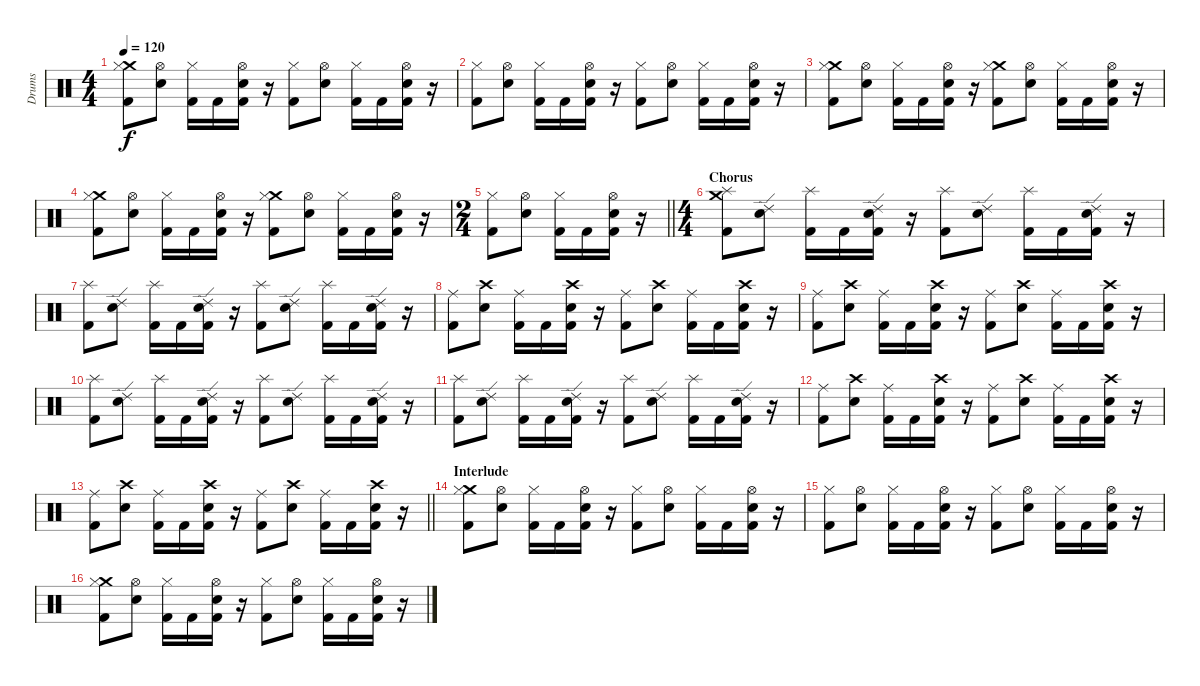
\track ("Drums" "Drums") {instrument percussion}
\staff {score}
\articulation defaults
\ts (4 4)
\tempo 120
\clef neutral
\ks c
("Kick (hit) 2" "Crash medium (hit)" "Hi-Hat (closed)").8{dy f} ("Snare (hit) 2" "Hi-Hat (open)").8 ("Kick (hit) 2" "Hi-Hat (closed)").16 "Kick (hit) 2".16 ("Kick (hit) 2" "Snare (hit) 2" "Hi-Hat (open)").16 r.16 ("Kick (hit) 2" "Hi-Hat (closed)").8 ("Snare (hit) 2" "Hi-Hat (open)").8 ("Kick (hit) 2" "Hi-Hat (closed)").16 "Kick (hit) 2".16 ("Kick (hit) 2" "Snare (hit) 2" "Hi-Hat (open)").16 r.16 |
("Kick (hit) 2" "Hi-Hat (closed)").8 ("Snare (hit) 2" "Hi-Hat (open)").8 ("Kick (hit) 2" "Hi-Hat (closed)").16 "Kick (hit) 2".16 ("Kick (hit) 2" "Snare (hit) 2" "Hi-Hat (open)").16 r.16 ("Kick (hit) 2" "Hi-Hat (closed)").8 ("Snare (hit) 2" "Hi-Hat (open)").8 ("Kick (hit) 2" "Hi-Hat (closed)").16 "Kick (hit) 2".16 ("Kick (hit) 2" "Snare (hit) 2" "Hi-Hat (open)").16 r.16 |
("Kick (hit) 2" "Crash medium (hit)" "Hi-Hat (closed)").8 ("Snare (hit) 2" "Hi-Hat (open)").8 ("Kick (hit) 2" "Hi-Hat (closed)").16 "Kick (hit) 2".16 ("Kick (hit) 2" "Snare (hit) 2" "Hi-Hat (open)").16 r.16 ("Kick (hit) 2" "Crash medium (hit)" "Hi-Hat (closed)").8 ("Snare (hit) 2" "Hi-Hat (open)").8 ("Kick (hit) 2" "Hi-Hat (closed)").16 "Kick (hit) 2".16 ("Kick (hit) 2" "Snare (hit) 2" "Hi-Hat (open)").16 r.16 |
("Kick (hit) 2" "Crash medium (hit)" "Hi-Hat (closed)").8 ("Snare (hit) 2" "Hi-Hat (open)").8 ("Kick (hit) 2" "Hi-Hat (closed)").16 "Kick (hit) 2".16 ("Kick (hit) 2" "Snare (hit) 2" "Hi-Hat (open)").16 r.16 ("Kick (hit) 2" "Crash medium (hit)" "Hi-Hat (closed)").8 ("Snare (hit) 2" "Hi-Hat (open)").8 ("Kick (hit) 2" "Hi-Hat (closed)").16 "Kick (hit) 2".16 ("Kick (hit) 2" "Snare (hit) 2" "Hi-Hat (open)").16 r.16 |
\ts (2 4)
\barLineRight lightlight
("Kick (hit) 2" "Hi-Hat (closed)").8 ("Snare (hit) 2" "Hi-Hat (open)").8 ("Kick (hit) 2" "Hi-Hat (closed)").16 "Kick (hit) 2".16 ("Kick (hit) 2" "Snare (hit) 2" "Hi-Hat (open)").16 r.16 |
\ts (4 4)
\section ("" "Chorus")
("Kick (hit) 2" "Crash medium (hit)" "Splash (hit)").8 ("Snare (hit) 2" "Ride (edge) 2").8 ("Kick (hit) 2" "Splash (hit)").16 "Kick (hit) 2".16 ("Kick (hit) 2" "Snare (hit) 2" "Ride (edge) 2").16 r.16 ("Kick (hit) 2" "Splash (hit)").8 ("Snare (hit) 2" "Ride (edge) 2").8 ("Kick (hit) 2" "Splash (hit)").16 "Kick (hit) 2".16 ("Kick (hit) 2" "Snare (hit) 2" "Ride (edge) 2").16 r.16 |
("Kick (hit) 2" "Splash (hit)").8 ("Snare (hit) 2" "Ride (edge) 2").8 ("Kick (hit) 2" "Splash (hit)").16 "Kick (hit) 2".16 ("Kick (hit) 2" "Snare (hit) 2" "Ride (edge) 2").16 r.16 ("Kick (hit) 2" "Splash (hit)").8 ("Snare (hit) 2" "Ride (edge) 2").8 ("Kick (hit) 2" "Splash (hit)").16 "Kick (hit) 2".16 ("Kick (hit) 2" "Snare (hit) 2" "Ride (edge) 2").16 r.16 |
("Kick (hit) 2" "Ride (middle)").8 ("Snare (hit) 2" "Crash high (hit)").8 ("Kick (hit) 2" "Ride (middle)").16 "Kick (hit) 2".16 ("Kick (hit) 2" "Snare (hit) 2" "Crash high (hit)").16 r.16 ("Kick (hit) 2" "Ride (middle)").8 ("Snare (hit) 2" "Crash high (hit)").8 ("Kick (hit) 2" "Ride (middle)").16 "Kick (hit) 2".16 ("Kick (hit) 2" "Snare (hit) 2" "Crash high (hit)").16 r.16 |
("Kick (hit) 2" "Ride (middle)").8 ("Snare (hit) 2" "Crash high (hit)").8 ("Kick (hit) 2" "Ride (middle)").16 "Kick (hit) 2".16 ("Kick (hit) 2" "Snare (hit) 2" "Crash high (hit)").16 r.16 ("Kick (hit) 2" "Ride (middle)").8 ("Snare (hit) 2" "Crash high (hit)").8 ("Kick (hit) 2" "Ride (middle)").16 "Kick (hit) 2".16 ("Kick (hit) 2" "Snare (hit) 2" "Crash high (hit)").16 r.16 |
("Kick (hit) 2" "Splash (hit)").8 ("Snare (hit) 2" "Ride (edge) 2").8 ("Kick (hit) 2" "Splash (hit)").16 "Kick (hit) 2".16 ("Kick (hit) 2" "Snare (hit) 2" "Ride (edge) 2").16 r.16 ("Kick (hit) 2" "Splash (hit)").8 ("Snare (hit) 2" "Ride (edge) 2").8 ("Kick (hit) 2" "Splash (hit)").16 "Kick (hit) 2".16 ("Kick (hit) 2" "Snare (hit) 2" "Ride (edge) 2").16 r.16 |
("Kick (hit) 2" "Splash (hit)").8 ("Snare (hit) 2" "Ride (edge) 2").8 ("Kick (hit) 2" "Splash (hit)").16 "Kick (hit) 2".16 ("Kick (hit) 2" "Snare (hit) 2" "Ride (edge) 2").16 r.16 ("Kick (hit) 2" "Splash (hit)").8 ("Snare (hit) 2" "Ride (edge) 2").8 ("Kick (hit) 2" "Splash (hit)").16 "Kick (hit) 2".16 ("Kick (hit) 2" "Snare (hit) 2" "Ride (edge) 2").16 r.16 |
("Kick (hit) 2" "Ride (middle)").8 ("Snare (hit) 2" "Crash high (hit)").8 ("Kick (hit) 2" "Ride (middle)").16 "Kick (hit) 2".16 ("Kick (hit) 2" "Snare (hit) 2" "Crash high (hit)").16 r.16 ("Kick (hit) 2" "Ride (middle)").8 ("Snare (hit) 2" "Crash high (hit)").8 ("Kick (hit) 2" "Ride (middle)").16 "Kick (hit) 2".16 ("Kick (hit) 2" "Snare (hit) 2" "Crash high (hit)").16 r.16 |
\barLineRight lightlight
("Kick (hit) 2" "Ride (middle)").8 ("Snare (hit) 2" "Crash high (hit)").8 ("Kick (hit) 2" "Ride (middle)").16 "Kick (hit) 2".16 ("Kick (hit) 2" "Snare (hit) 2" "Crash high (hit)").16 r.16 ("Kick (hit) 2" "Ride (middle)").8 ("Snare (hit) 2" "Crash high (hit)").8 ("Kick (hit) 2" "Ride (middle)").16 "Kick (hit) 2".16 ("Kick (hit) 2" "Snare (hit) 2" "Crash high (hit)").16 r.16 |
\section ("" "Interlude")
("Kick (hit) 2" "Crash medium (hit)" "Hi-Hat (closed)").8 ("Snare (hit) 2" "Hi-Hat (open)").8 ("Kick (hit) 2" "Hi-Hat (closed)").16 "Kick (hit) 2".16 ("Kick (hit) 2" "Snare (hit) 2" "Hi-Hat (open)").16 r.16 ("Kick (hit) 2" "Hi-Hat (closed)").8 ("Snare (hit) 2" "Hi-Hat (open)").8 ("Kick (hit) 2" "Hi-Hat (closed)").16 "Kick (hit) 2".16 ("Kick (hit) 2" "Snare (hit) 2" "Hi-Hat (open)").16 r.16 |
("Kick (hit) 2" "Hi-Hat (closed)").8 ("Snare (hit) 2" "Hi-Hat (open)").8 ("Kick (hit) 2" "Hi-Hat (closed)").16 "Kick (hit) 2".16 ("Kick (hit) 2" "Snare (hit) 2" "Hi-Hat (open)").16 r.16 ("Kick (hit) 2" "Hi-Hat (closed)").8 ("Snare (hit) 2" "Hi-Hat (open)").8 ("Kick (hit) 2" "Hi-Hat (closed)").16 "Kick (hit) 2".16 ("Kick (hit) 2" "Snare (hit) 2" "Hi-Hat (open)").16 r.16 |
("Kick (hit) 2" "Crash medium (hit)" "Hi-Hat (closed)").8 ("Snare (hit) 2" "Hi-Hat (open)").8 ("Kick (hit) 2" "Hi-Hat (closed)").16 "Kick (hit) 2".16 ("Kick (hit) 2" "Snare (hit) 2" "Hi-Hat (open)").16 r.16 ("Kick (hit) 2" "Hi-Hat (closed)").8 ("Snare (hit) 2" "Hi-Hat (open)").8 ("Kick (hit) 2" "Hi-Hat (closed)").16 "Kick (hit) 2".16 ("Kick (hit) 2" "Snare (hit) 2" "Hi-Hat (open)").16 r.16
